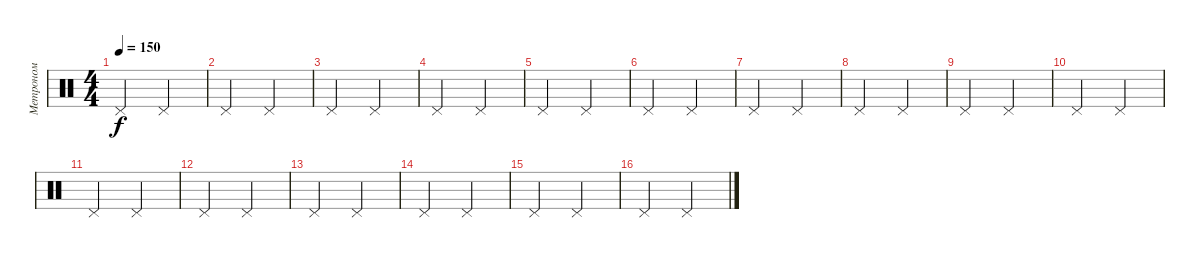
\track ("Метроном" "Метроном") {mute instrument percussion}
\staff {score}
\articulation defaults
\ts (4 4)
\tempo 150
\clef neutral
\ks c "Pedal Hi-Hat (hit)".2{dy f} "Pedal Hi-Hat (hit)".2
|
"Pedal Hi-Hat (hit)".2 "Pedal Hi-Hat (hit)".2 |
"Pedal Hi-Hat (hit)".2 "Pedal Hi-Hat (hit)".2 |
"Pedal Hi-Hat (hit)".2 "Pedal Hi-Hat (hit)".2 |
"Pedal Hi-Hat (hit)".2 "Pedal Hi-Hat (hit)".2 |
"Pedal Hi-Hat (hit)".2 "Pedal Hi-Hat (hit)".2 |
"Pedal Hi-Hat (hit)".2 "Pedal Hi-Hat (hit)".2 |
"Pedal Hi-Hat (hit)".2 "Pedal Hi-Hat (hit)".2 |
"Pedal Hi-Hat (hit)".2 "Pedal Hi-Hat (hit)".2 |
"Pedal Hi-Hat (hit)".2 "Pedal Hi-Hat (hit)".2 |
"Pedal Hi-Hat (hit)".2 "Pedal Hi-Hat (hit)".2 |
"Pedal Hi-Hat (hit)".2 "Pedal Hi-Hat (hit)".2 |
"Pedal Hi-Hat (hit)".2 "Pedal Hi-Hat (hit)".2 |
"Pedal Hi-Hat (hit)".2 "Pedal Hi-Hat (hit)".2 |
"Pedal Hi-Hat (hit)".2 "Pedal Hi-Hat (hit)".2 |
"Pedal Hi-Hat (hit)".2 "Pedal Hi-Hat (hit)".2
